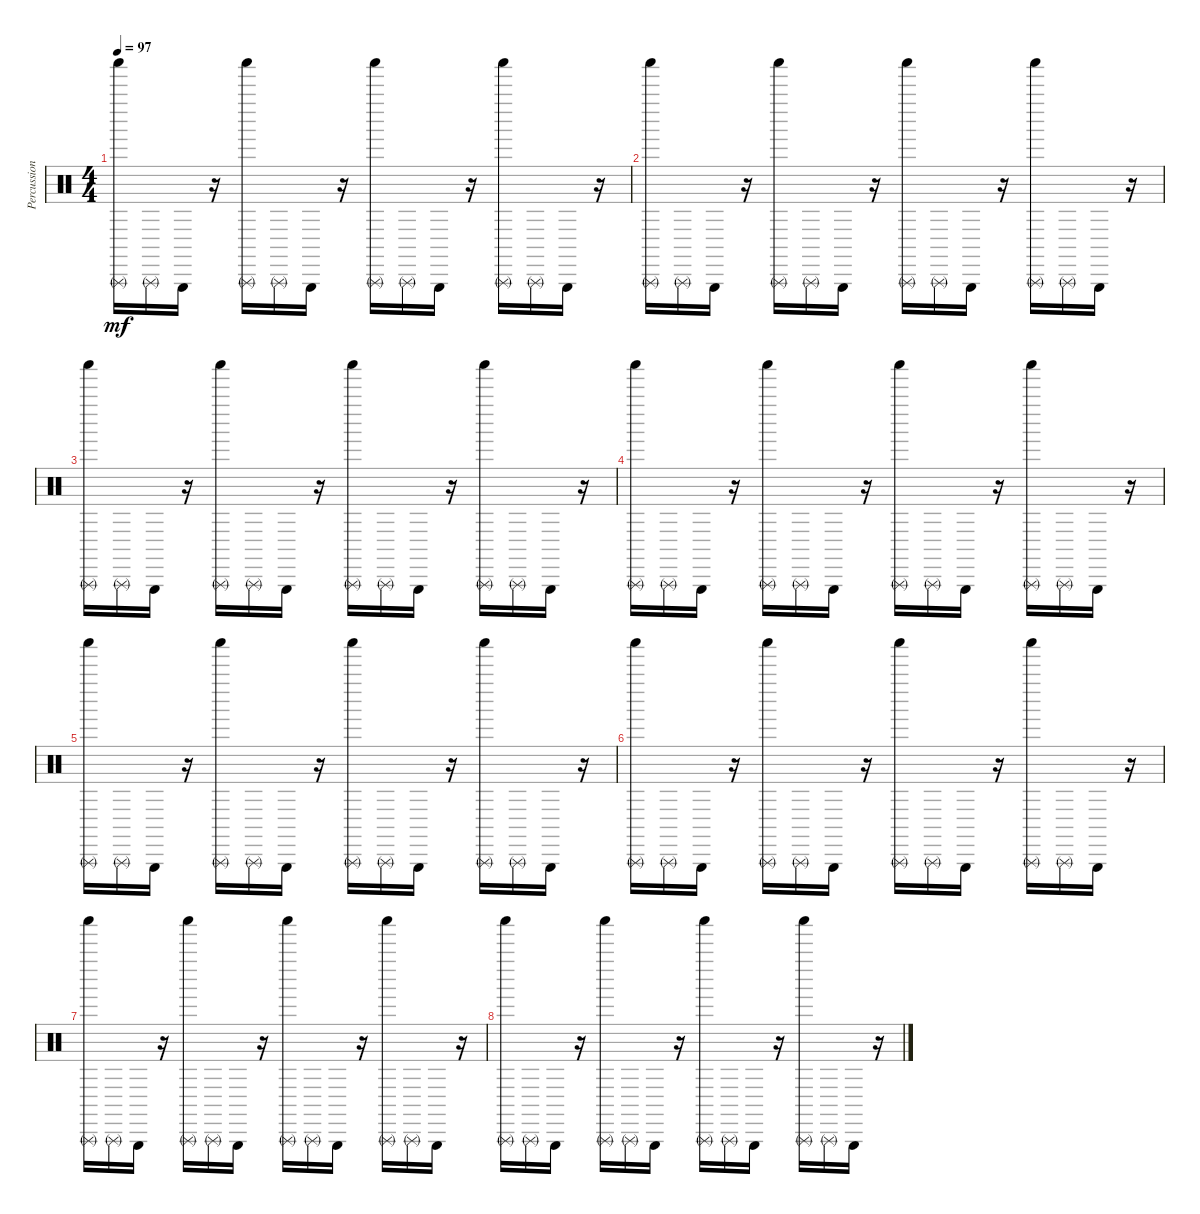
\track ("Percussions" "Percussion") {instrument percussion}
\staff {score}
\articulation defaults
\ts (4 4)
\tempo 97
\clef neutral
\ks c
("Triangle (rnute)" "Shaker (hit)").16{dy mf} "Triangle (rnute)".16 "Triangle (hit)".16 r.16 ("Triangle (rnute)" "Shaker (hit)").16 "Triangle (rnute)".16 "Triangle (hit)".16 r.16 ("Triangle (rnute)" "Shaker (hit)").16 "Triangle (rnute)".16 "Triangle (hit)".16 r.16 ("Triangle (rnute)" "Shaker (hit)").16 "Triangle (rnute)".16 "Triangle (hit)".16 r.16 |
("Triangle (rnute)" "Shaker (hit)").16 "Triangle (rnute)".16 "Triangle (hit)".16 r.16 ("Triangle (rnute)" "Shaker (hit)").16 "Triangle (rnute)".16 "Triangle (hit)".16 r.16 ("Triangle (rnute)" "Shaker (hit)").16 "Triangle (rnute)".16 "Triangle (hit)".16 r.16 ("Triangle (rnute)" "Shaker (hit)").16 "Triangle (rnute)".16 "Triangle (hit)".16 r.16 |
("Triangle (rnute)" "Shaker (hit)").16 "Triangle (rnute)".16 "Triangle (hit)".16 r.16 ("Triangle (rnute)" "Shaker (hit)").16 "Triangle (rnute)".16 "Triangle (hit)".16 r.16 ("Triangle (rnute)" "Shaker (hit)").16 "Triangle (rnute)".16 "Triangle (hit)".16 r.16 ("Triangle (rnute)" "Shaker (hit)").16 "Triangle (rnute)".16 "Triangle (hit)".16 r.16 |
("Triangle (rnute)" "Shaker (hit)").16 "Triangle (rnute)".16 "Triangle (hit)".16 r.16 ("Triangle (rnute)" "Shaker (hit)").16 "Triangle (rnute)".16 "Triangle (hit)".16 r.16 ("Triangle (rnute)" "Shaker (hit)").16 "Triangle (rnute)".16 "Triangle (hit)".16 r.16 ("Triangle (rnute)" "Shaker (hit)").16 "Triangle (rnute)".16 "Triangle (hit)".16 r.16 |
("Triangle (rnute)" "Shaker (hit)").16 "Triangle (rnute)".16 "Triangle (hit)".16 r.16 ("Triangle (rnute)" "Shaker (hit)").16 "Triangle (rnute)".16 "Triangle (hit)".16 r.16 ("Triangle (rnute)" "Shaker (hit)").16 "Triangle (rnute)".16 "Triangle (hit)".16 r.16 ("Triangle (rnute)" "Shaker (hit)").16 "Triangle (rnute)".16 "Triangle (hit)".16 r.16 |
("Triangle (rnute)" "Shaker (hit)").16 "Triangle (rnute)".16 "Triangle (hit)".16 r.16 ("Triangle (rnute)" "Shaker (hit)").16 "Triangle (rnute)".16 "Triangle (hit)".16 r.16 ("Triangle (rnute)" "Shaker (hit)").16 "Triangle (rnute)".16 "Triangle (hit)".16 r.16 ("Triangle (rnute)" "Shaker (hit)").16 "Triangle (rnute)".16 "Triangle (hit)".16 r.16 |
("Triangle (rnute)" "Shaker (hit)").16 "Triangle (rnute)".16 "Triangle (hit)".16 r.16 ("Triangle (rnute)" "Shaker (hit)").16 "Triangle (rnute)".16 "Triangle (hit)".16 r.16 ("Triangle (rnute)" "Shaker (hit)").16 "Triangle (rnute)".16 "Triangle (hit)".16 r.16 ("Triangle (rnute)" "Shaker (hit)").16 "Triangle (rnute)".16 "Triangle (hit)".16 r.16 |
("Triangle (rnute)" "Shaker (hit)").16 "Triangle (rnute)".16 "Triangle (hit)".16 r.16 ("Triangle (rnute)" "Shaker (hit)").16 "Triangle (rnute)".16 "Triangle (hit)".16 r.16 ("Triangle (rnute)" "Shaker (hit)").16 "Triangle (rnute)".16 "Triangle (hit)".16 r.16 ("Triangle (rnute)" "Shaker (hit)").16 "Triangle (rnute)".16 "Triangle (hit)".16 r.16
